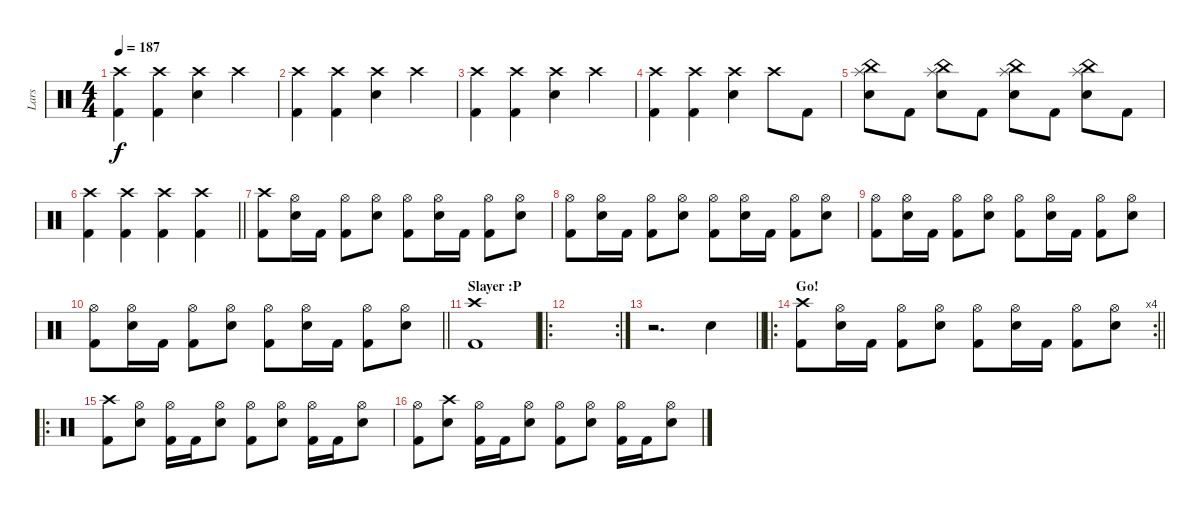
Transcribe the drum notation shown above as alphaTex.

\track ("Lars" "Lars") {instrument percussion}
\staff {score}
\articulation defaults
\ts (4 4)
\tempo 187
\clef neutral
\ks c
("Crash high (hit)" "Kick (hit) 2").4{dy f} ("Crash high (hit)" "Kick (hit) 2").4 ("Crash high (hit)" "Snare (hit) 2").4 "Crash high (hit)".4 |
("Crash high (hit)" "Kick (hit) 2").4 ("Crash high (hit)" "Kick (hit) 2").4 ("Crash high (hit)" "Snare (hit) 2").4 "Crash high (hit)".4 |
("Crash high (hit)" "Kick (hit) 2").4 ("Crash high (hit)" "Kick (hit) 2").4 ("Crash high (hit)" "Snare (hit) 2").4 "Crash high (hit)".4 |
("Crash high (hit)" "Kick (hit) 2").4 ("Crash high (hit)" "Kick (hit) 2").4 ("Crash high (hit)" "Snare (hit) 2").4 "Crash high (hit)".8 "Kick (hit) 2".8 |
("Splash (hit)" "China (hit)" "Snare (hit) 2").8 "Kick (hit) 2".8 ("Splash (hit)" "China (hit)" "Snare (hit) 2").8 "Kick (hit) 2".8 ("Splash (hit)" "China (hit)" "Snare (hit) 2").8 "Kick (hit) 2".8 ("Splash (hit)" "China (hit)" "Snare (hit) 2").8 "Kick (hit) 2".8 |
\barLineRight lightlight
("Crash high (hit)" "Kick (hit) 2").4 ("Crash high (hit)" "Kick (hit) 2").4 ("Crash high (hit)" "Kick (hit) 2").4 ("Crash high (hit)" "Kick (hit) 2").4 |
\section ("" "")
("Crash high (hit)" "Kick (hit) 2").8 ("Hi-Hat (open)" "Snare (hit) 2").16 "Kick (hit) 2".16 ("Hi-Hat (open)" "Kick (hit) 2").8 ("Hi-Hat (open)" "Snare (hit) 2").8 ("Hi-Hat (open)" "Kick (hit) 2").8 ("Hi-Hat (open)" "Snare (hit) 2").16 "Kick (hit) 2".16 ("Hi-Hat (open)" "Kick (hit) 2").8 ("Hi-Hat (open)" "Snare (hit) 2").8 |
("Hi-Hat (open)" "Kick (hit) 2").8 ("Hi-Hat (open)" "Snare (hit) 2").16 "Kick (hit) 2".16 ("Hi-Hat (open)" "Kick (hit) 2").8 ("Hi-Hat (open)" "Snare (hit) 2").8 ("Hi-Hat (open)" "Kick (hit) 2").8 ("Hi-Hat (open)" "Snare (hit) 2").16 "Kick (hit) 2".16 ("Hi-Hat (open)" "Kick (hit) 2").8 ("Hi-Hat (open)" "Snare (hit) 2").8 |
("Hi-Hat (open)" "Kick (hit) 2").8 ("Hi-Hat (open)" "Snare (hit) 2").16 "Kick (hit) 2".16 ("Hi-Hat (open)" "Kick (hit) 2").8 ("Hi-Hat (open)" "Snare (hit) 2").8 ("Hi-Hat (open)" "Kick (hit) 2").8 ("Hi-Hat (open)" "Snare (hit) 2").16 "Kick (hit) 2".16 ("Hi-Hat (open)" "Kick (hit) 2").8 ("Hi-Hat (open)" "Snare (hit) 2").8 |
\barLineRight lightlight
("Hi-Hat (open)" "Kick (hit) 2").8 ("Hi-Hat (open)" "Snare (hit) 2").16 "Kick (hit) 2".16 ("Hi-Hat (open)" "Kick (hit) 2").8 ("Hi-Hat (open)" "Snare (hit) 2").8 ("Hi-Hat (open)" "Kick (hit) 2").8 ("Hi-Hat (open)" "Snare (hit) 2").16 "Kick (hit) 2".16 ("Hi-Hat (open)" "Kick (hit) 2").8 ("Hi-Hat (open)" "Snare (hit) 2").8 |
\section ("" "Slayer :P")
("Crash high (hit)" "Kick (hit) 2").1 |
\ro
\rc 2
|
\barLineRight lightlight
r.2{d} "Snare (hit) 2".4 |
\ro
\rc 4
\section ("" "Go!")
\barLineRight lightlight
("Crash high (hit)" "Kick (hit) 2").8 ("Hi-Hat (open)" "Snare (hit) 2").16 "Kick (hit) 2".16 ("Hi-Hat (open)" "Kick (hit) 2").8 ("Hi-Hat (open)" "Snare (hit) 2").8 ("Hi-Hat (open)" "Kick (hit) 2").8 ("Hi-Hat (open)" "Snare (hit) 2").16 "Kick (hit) 2".16 ("Hi-Hat (open)" "Kick (hit) 2").8 ("Hi-Hat (open)" "Snare (hit) 2").8 |
\ro
("Crash high (hit)" "Kick (hit) 2").8 ("Hi-Hat (open)" "Snare (hit) 2").8 ("Hi-Hat (open)" "Kick (hit) 2").16 "Kick (hit) 2".16 ("Hi-Hat (open)" "Snare (hit) 2").8 ("Hi-Hat (open)" "Kick (hit) 2").8 ("Hi-Hat (open)" "Snare (hit) 2").8 ("Hi-Hat (open)" "Kick (hit) 2").16 "Kick (hit) 2".16 ("Hi-Hat (open)" "Snare (hit) 2").8 |
("Hi-Hat (open)" "Kick (hit) 2").8 ("Crash high (hit)" "Snare (hit) 2").8 ("Hi-Hat (open)" "Kick (hit) 2").16 "Kick (hit) 2".16 ("Hi-Hat (open)" "Snare (hit) 2").8 ("Hi-Hat (open)" "Kick (hit) 2").8 ("Hi-Hat (open)" "Snare (hit) 2").8 ("Hi-Hat (open)" "Kick (hit) 2").16 "Kick (hit) 2".16 ("Hi-Hat (open)" "Snare (hit) 2").8
